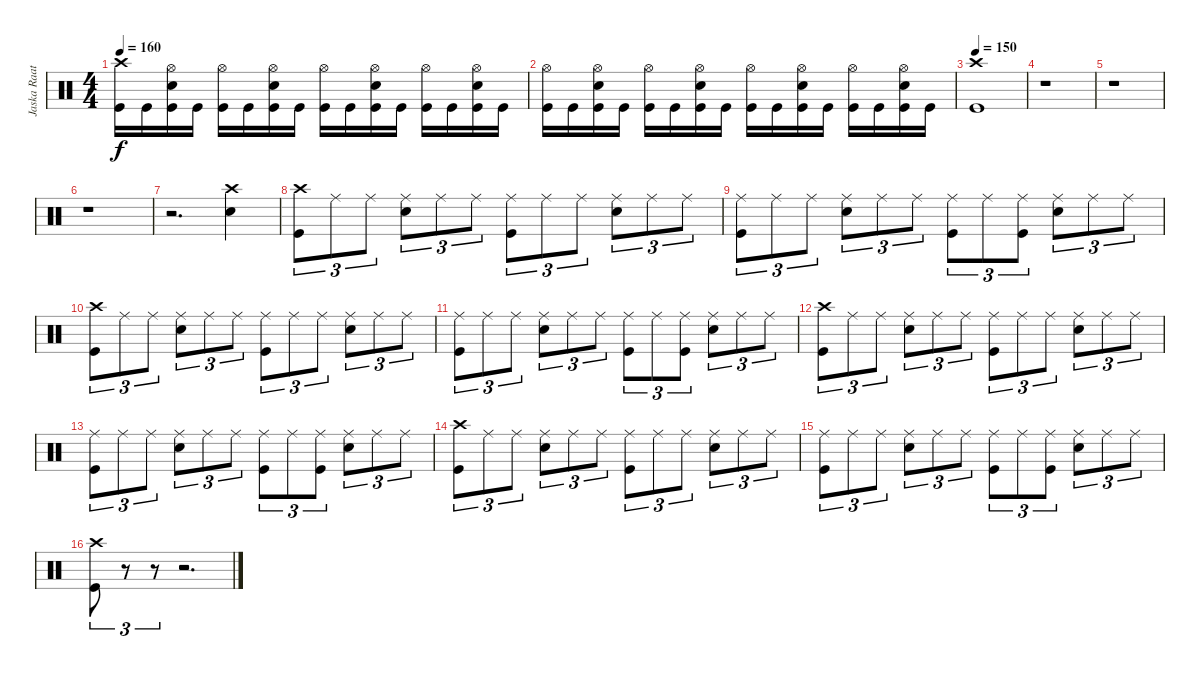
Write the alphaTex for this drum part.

\track ("Jaska Raatikainen" "Jaska Raat") {instrument percussion}
\staff {score}
\articulation defaults
\ts (4 4)
\tempo 160
\clef neutral
\ks c
("Crash high (hit)" "Kick (hit)").16{dy f} "Kick (hit)".16 ("Hi-Hat (open)" "Electric Snare (hit)" "Kick (hit)").16 "Kick (hit)".16 ("Hi-Hat (open)" "Kick (hit)").16 "Kick (hit)".16 ("Hi-Hat (open)" "Electric Snare (hit)" "Kick (hit)").16 "Kick (hit)".16 ("Hi-Hat (open)" "Kick (hit)").16 "Kick (hit)".16 ("Hi-Hat (open)" "Electric Snare (hit)" "Kick (hit)").16 "Kick (hit)".16 ("Hi-Hat (open)" "Kick (hit)").16 "Kick (hit)".16 ("Hi-Hat (open)" "Electric Snare (hit)" "Kick (hit)").16 "Kick (hit)".16 |
("Hi-Hat (open)" "Kick (hit)").16 "Kick (hit)".16 ("Hi-Hat (open)" "Electric Snare (hit)" "Kick (hit)").16 "Kick (hit)".16 ("Hi-Hat (open)" "Kick (hit)").16 "Kick (hit)".16 ("Hi-Hat (open)" "Electric Snare (hit)" "Kick (hit)").16 "Kick (hit)".16 ("Hi-Hat (open)" "Kick (hit)").16 "Kick (hit)".16 ("Hi-Hat (open)" "Electric Snare (hit)" "Kick (hit)").16 "Kick (hit)".16 ("Hi-Hat (open)" "Kick (hit)").16 "Kick (hit)".16 ("Hi-Hat (open)" "Electric Snare (hit)" "Kick (hit)").16 "Kick (hit)".16 |
\tempo 150
("Crash high (hit)" "Kick (hit)").1 |
r.1 |
r.1 |
r.1 |
r.2{d} ("Crash high (hit)" "Electric Snare (hit)").4 |
("Crash high (hit)" "Kick (hit)").8{tu (3 2)} "Ride (middle)".8{tu (3 2)} "Ride (middle)".8{tu (3 2)} ("Ride (middle)" "Electric Snare (hit)").8{tu (3 2)} "Ride (middle)".8{tu (3 2)} "Ride (middle)".8{tu (3 2)} ("Ride (middle)" "Kick (hit)").8{tu (3 2)} "Ride (middle)".8{tu (3 2)} "Ride (middle)".8{tu (3 2)} ("Ride (middle)" "Electric Snare (hit)").8{tu (3 2)} "Ride (middle)".8{tu (3 2)} "Ride (middle)".8{tu (3 2)} |
("Ride (middle)" "Kick (hit)").8{tu (3 2)} "Ride (middle)".8{tu (3 2)} "Ride (middle)".8{tu (3 2)} ("Ride (middle)" "Electric Snare (hit)").8{tu (3 2)} "Ride (middle)".8{tu (3 2)} "Ride (middle)".8{tu (3 2)} ("Ride (middle)" "Kick (hit)").8{tu (3 2)} "Ride (middle)".8{tu (3 2)} ("Ride (middle)" "Kick (hit)").8{tu (3 2)} ("Ride (middle)" "Electric Snare (hit)").8{tu (3 2)} "Ride (middle)".8{tu (3 2)} "Ride (middle)".8{tu (3 2)} |
("Crash high (hit)" "Kick (hit)").8{tu (3 2)} "Ride (middle)".8{tu (3 2)} "Ride (middle)".8{tu (3 2)} ("Ride (middle)" "Electric Snare (hit)").8{tu (3 2)} "Ride (middle)".8{tu (3 2)} "Ride (middle)".8{tu (3 2)} ("Ride (middle)" "Kick (hit)").8{tu (3 2)} "Ride (middle)".8{tu (3 2)} "Ride (middle)".8{tu (3 2)} ("Ride (middle)" "Electric Snare (hit)").8{tu (3 2)} "Ride (middle)".8{tu (3 2)} "Ride (middle)".8{tu (3 2)} |
("Ride (middle)" "Kick (hit)").8{tu (3 2)} "Ride (middle)".8{tu (3 2)} "Ride (middle)".8{tu (3 2)} ("Ride (middle)" "Electric Snare (hit)").8{tu (3 2)} "Ride (middle)".8{tu (3 2)} "Ride (middle)".8{tu (3 2)} ("Ride (middle)" "Kick (hit)").8{tu (3 2)} "Ride (middle)".8{tu (3 2)} ("Ride (middle)" "Kick (hit)").8{tu (3 2)} ("Ride (middle)" "Electric Snare (hit)").8{tu (3 2)} "Ride (middle)".8{tu (3 2)} "Ride (middle)".8{tu (3 2)} |
("Crash high (hit)" "Kick (hit)").8{tu (3 2)} "Ride (middle)".8{tu (3 2)} "Ride (middle)".8{tu (3 2)} ("Ride (middle)" "Electric Snare (hit)").8{tu (3 2)} "Ride (middle)".8{tu (3 2)} "Ride (middle)".8{tu (3 2)} ("Ride (middle)" "Kick (hit)").8{tu (3 2)} "Ride (middle)".8{tu (3 2)} "Ride (middle)".8{tu (3 2)} ("Ride (middle)" "Electric Snare (hit)").8{tu (3 2)} "Ride (middle)".8{tu (3 2)} "Ride (middle)".8{tu (3 2)} |
("Ride (middle)" "Kick (hit)").8{tu (3 2)} "Ride (middle)".8{tu (3 2)} "Ride (middle)".8{tu (3 2)} ("Ride (middle)" "Electric Snare (hit)").8{tu (3 2)} "Ride (middle)".8{tu (3 2)} "Ride (middle)".8{tu (3 2)} ("Ride (middle)" "Kick (hit)").8{tu (3 2)} "Ride (middle)".8{tu (3 2)} ("Ride (middle)" "Kick (hit)").8{tu (3 2)} ("Ride (middle)" "Electric Snare (hit)").8{tu (3 2)} "Ride (middle)".8{tu (3 2)} "Ride (middle)".8{tu (3 2)} |
("Crash high (hit)" "Kick (hit)").8{tu (3 2)} "Ride (middle)".8{tu (3 2)} "Ride (middle)".8{tu (3 2)} ("Ride (middle)" "Electric Snare (hit)").8{tu (3 2)} "Ride (middle)".8{tu (3 2)} "Ride (middle)".8{tu (3 2)} ("Ride (middle)" "Kick (hit)").8{tu (3 2)} "Ride (middle)".8{tu (3 2)} "Ride (middle)".8{tu (3 2)} ("Ride (middle)" "Electric Snare (hit)").8{tu (3 2)} "Ride (middle)".8{tu (3 2)} "Ride (middle)".8{tu (3 2)} |
("Ride (middle)" "Kick (hit)").8{tu (3 2)} "Ride (middle)".8{tu (3 2)} "Ride (middle)".8{tu (3 2)} ("Ride (middle)" "Electric Snare (hit)").8{tu (3 2)} "Ride (middle)".8{tu (3 2)} "Ride (middle)".8{tu (3 2)} ("Ride (middle)" "Kick (hit)").8{tu (3 2)} "Ride (middle)".8{tu (3 2)} ("Ride (middle)" "Kick (hit)").8{tu (3 2)} ("Ride (middle)" "Electric Snare (hit)").8{tu (3 2)} "Ride (middle)".8{tu (3 2)} "Ride (middle)".8{tu (3 2)} |
("Crash high (hit)" "Kick (hit)").8{tu (3 2)} r.8{tu (3 2)} r.8{tu (3 2)} r.2{d}
